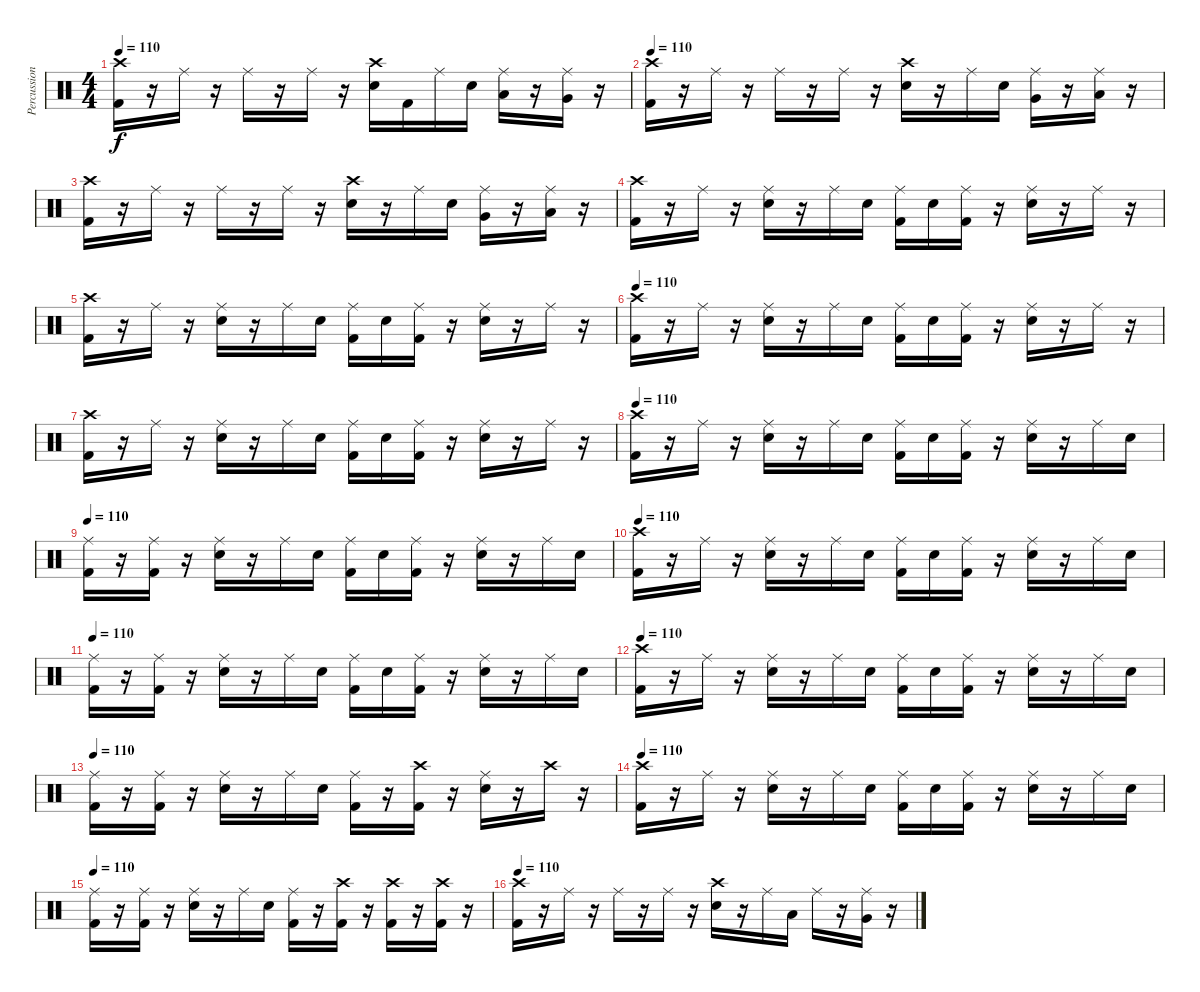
\track ("Percussion" "Percussion") {instrument percussion}
\staff {score}
\articulation defaults
\ts (4 4)
\tempo 110
\clef neutral
\ks c
("Crash high (hit)" "Kick (hit) 2").16{dy f} r.16 "Ride (middle)".16 r.16 "Ride (middle)".16 r.16 "Ride (middle)".16 r.16 ("Crash high (hit)" "Electric Snare (hit)").16 "Kick (hit) 2".16 "Ride (middle)".16 "Electric Snare (hit)".16 ("Ride (middle)" "Low Tom (hit)").16 r.16 ("Ride (middle)" "Very Low Tom (hit)").16 r.16 |
\tempo 110
("Crash high (hit)" "Kick (hit) 2").16 r.16 "Ride (middle)".16 r.16 "Ride (middle)".16 r.16 "Ride (middle)".16 r.16 ("Crash high (hit)" "Electric Snare (hit)").16 r.16 "Ride (middle)".16 "Electric Snare (hit)".16 ("Ride (middle)" "Very Low Tom (hit)").16 r.16 ("Ride (middle)" "Low Floor Tom (hit)").16 r.16 |
("Crash high (hit)" "Kick (hit) 2").16 r.16 "Ride (middle)".16 r.16 "Ride (middle)".16 r.16 "Ride (middle)".16 r.16 ("Crash high (hit)" "Electric Snare (hit)").16 r.16 "Ride (middle)".16 "Electric Snare (hit)".16 ("Ride (middle)" "Very Low Tom (hit)").16 r.16 ("Ride (middle)" "Low Floor Tom (hit)").16 r.16 |
("Crash high (hit)" "Kick (hit) 2").16 r.16 "Ride (middle)".16 r.16 ("Ride (middle)" "Electric Snare (hit)").16 r.16 "Ride (middle)".16 "Electric Snare (hit)".16 ("Ride (middle)" "Kick (hit) 2").16 "Electric Snare (hit)".16 ("Ride (middle)" "Kick (hit) 2").16 r.16 ("Ride (middle)" "Electric Snare (hit)").16 r.16 "Ride (middle)".16 r.16 |
("Crash high (hit)" "Kick (hit) 2").16 r.16 "Ride (middle)".16 r.16 ("Ride (middle)" "Electric Snare (hit)").16 r.16 "Ride (middle)".16 "Electric Snare (hit)".16 ("Ride (middle)" "Kick (hit) 2").16 "Electric Snare (hit)".16 ("Ride (middle)" "Kick (hit) 2").16 r.16 ("Ride (middle)" "Electric Snare (hit)").16 r.16 "Ride (middle)".16 r.16 |
\tempo 110
("Crash high (hit)" "Kick (hit) 2").16 r.16 "Ride (middle)".16 r.16 ("Ride (middle)" "Electric Snare (hit)").16 r.16 "Ride (middle)".16 "Electric Snare (hit)".16 ("Ride (middle)" "Kick (hit) 2").16 "Electric Snare (hit)".16 ("Ride (middle)" "Kick (hit) 2").16 r.16 ("Ride (middle)" "Electric Snare (hit)").16 r.16 "Ride (middle)".16 r.16 |
("Crash high (hit)" "Kick (hit) 2").16 r.16 "Ride (middle)".16 r.16 ("Ride (middle)" "Electric Snare (hit)").16 r.16 "Ride (middle)".16 "Electric Snare (hit)".16 ("Ride (middle)" "Kick (hit) 2").16 "Electric Snare (hit)".16 ("Ride (middle)" "Kick (hit) 2").16 r.16 ("Ride (middle)" "Electric Snare (hit)").16 r.16 "Ride (middle)".16 r.16 |
\tempo 110
("Crash high (hit)" "Kick (hit) 2").16 r.16 "Ride (middle)".16 r.16 ("Ride (middle)" "Electric Snare (hit)").16 r.16 "Ride (middle)".16 "Electric Snare (hit)".16 ("Ride (middle)" "Kick (hit) 2").16 "Electric Snare (hit)".16 ("Ride (middle)" "Kick (hit) 2").16 r.16 ("Ride (middle)" "Electric Snare (hit)").16 r.16 "Ride (middle)".16 "Electric Snare (hit)".16 |
\tempo 110
("Ride (middle)" "Kick (hit) 2").16 r.16 ("Ride (middle)" "Kick (hit) 2").16 r.16 ("Ride (middle)" "Electric Snare (hit)").16 r.16 "Ride (middle)".16 "Electric Snare (hit)".16 ("Ride (middle)" "Kick (hit) 2").16 "Electric Snare (hit)".16 ("Ride (middle)" "Kick (hit) 2").16 r.16 ("Ride (middle)" "Electric Snare (hit)").16 r.16 "Ride (middle)".16 "Electric Snare (hit)".16 |
\tempo 110
("Crash high (hit)" "Kick (hit) 2").16 r.16 "Ride (middle)".16 r.16 ("Ride (middle)" "Electric Snare (hit)").16 r.16 "Ride (middle)".16 "Electric Snare (hit)".16 ("Ride (middle)" "Kick (hit) 2").16 "Electric Snare (hit)".16 ("Ride (middle)" "Kick (hit) 2").16 r.16 ("Ride (middle)" "Electric Snare (hit)").16 r.16 "Ride (middle)".16 "Electric Snare (hit)".16 |
\tempo 110
("Ride (middle)" "Kick (hit) 2").16 r.16 ("Ride (middle)" "Kick (hit) 2").16 r.16 ("Ride (middle)" "Electric Snare (hit)").16 r.16 "Ride (middle)".16 "Electric Snare (hit)".16 ("Ride (middle)" "Kick (hit) 2").16 "Electric Snare (hit)".16 ("Ride (middle)" "Kick (hit) 2").16 r.16 ("Ride (middle)" "Electric Snare (hit)").16 r.16 "Ride (middle)".16 "Electric Snare (hit)".16 |
\tempo 110
("Crash high (hit)" "Kick (hit) 2").16 r.16 "Ride (middle)".16 r.16 ("Ride (middle)" "Electric Snare (hit)").16 r.16 "Ride (middle)".16 "Electric Snare (hit)".16 ("Ride (middle)" "Kick (hit) 2").16 "Electric Snare (hit)".16 ("Ride (middle)" "Kick (hit) 2").16 r.16 ("Ride (middle)" "Electric Snare (hit)").16 r.16 "Ride (middle)".16 "Electric Snare (hit)".16 |
\tempo 110
("Ride (middle)" "Kick (hit) 2").16 r.16 ("Ride (middle)" "Kick (hit) 2").16 r.16 ("Ride (middle)" "Electric Snare (hit)").16 r.16 "Ride (middle)".16 "Electric Snare (hit)".16 ("Ride (middle)" "Kick (hit) 2").16 r.16 ("Crash high (hit)" "Kick (hit) 2").16 r.16 ("Ride (middle)" "Electric Snare (hit)").16 r.16 "Crash high (hit)".16 r.16 |
\tempo 110
("Crash high (hit)" "Kick (hit) 2").16 r.16 "Ride (middle)".16 r.16 ("Ride (middle)" "Electric Snare (hit)").16 r.16 "Ride (middle)".16 "Electric Snare (hit)".16 ("Ride (middle)" "Kick (hit) 2").16 "Electric Snare (hit)".16 ("Ride (middle)" "Kick (hit) 2").16 r.16 ("Ride (middle)" "Electric Snare (hit)").16 r.16 "Ride (middle)".16 "Electric Snare (hit)".16 |
\tempo 110
("Ride (middle)" "Kick (hit) 2").16 r.16 ("Ride (middle)" "Kick (hit) 2").16 r.16 ("Ride (middle)" "Electric Snare (hit)").16 r.16 "Ride (middle)".16 "Electric Snare (hit)".16 ("Ride (middle)" "Kick (hit) 2").16 r.16 ("Crash high (hit)" "Kick (hit) 2").16 r.16 ("Crash high (hit)" "Kick (hit) 2").16 r.16 ("Crash high (hit)" "Kick (hit) 2").16 r.16 |
\tempo 110
("Crash high (hit)" "Kick (hit) 2").16 r.16 "Ride (middle)".16 r.16 "Ride (middle)".16 r.16 "Ride (middle)".16 r.16 ("Crash high (hit)" "Electric Snare (hit)").16 r.16 "Ride (middle)".16 "Low Tom (hit)".16 "Ride (middle)".16 r.16 ("Ride (middle)" "Very Low Tom (hit)").16 r.16
